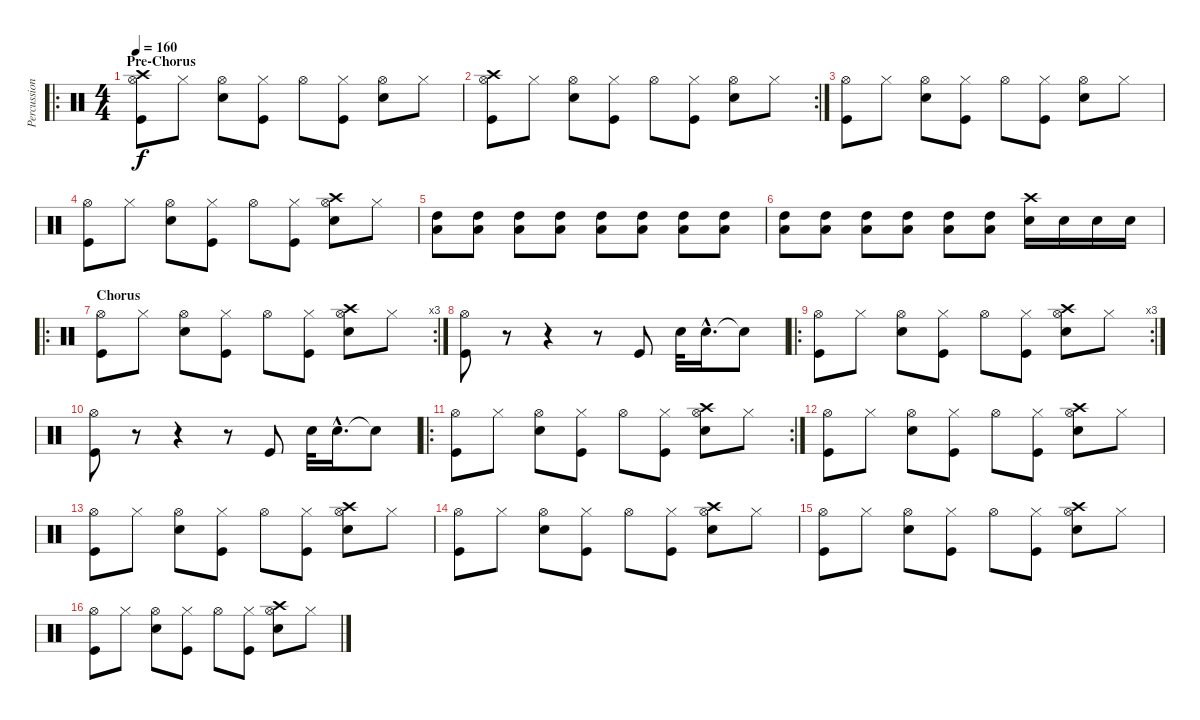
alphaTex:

\track ("Percussions" "Percussion") {instrument percussion}
\staff {score}
\articulation defaults
\ro
\ts (4 4)
\section ("" "Pre-Chorus")
\tempo 160
\clef neutral
\ks c
("Hi-Hat (open)" "Kick (hit)" "Crash high (hit)").8{dy f} "Hi-Hat (closed)".8 ("Hi-Hat (open)" "Snare (hit) 2").8 ("Hi-Hat (closed)" "Kick (hit)").8 "Hi-Hat (open)".8 ("Hi-Hat (closed)" "Kick (hit)").8 ("Hi-Hat (open)" "Snare (hit) 2").8 "Hi-Hat (closed)".8 |
\rc 2
("Hi-Hat (open)" "Kick (hit)" "Crash high (hit)").8 "Hi-Hat (closed)".8 ("Hi-Hat (open)" "Snare (hit) 2").8 ("Hi-Hat (closed)" "Kick (hit)").8 "Hi-Hat (open)".8 ("Hi-Hat (closed)" "Kick (hit)").8 ("Hi-Hat (open)" "Snare (hit) 2").8 "Hi-Hat (closed)".8 |
("Hi-Hat (open)" "Kick (hit)").8 "Hi-Hat (closed)".8 ("Hi-Hat (open)" "Snare (hit) 2").8 ("Hi-Hat (closed)" "Kick (hit)").8 "Hi-Hat (open)".8 ("Hi-Hat (closed)" "Kick (hit)").8 ("Hi-Hat (open)" "Snare (hit) 2").8 "Hi-Hat (closed)".8 |
("Hi-Hat (open)" "Kick (hit)").8 "Hi-Hat (closed)".8 ("Hi-Hat (open)" "Snare (hit) 2").8 ("Hi-Hat (closed)" "Kick (hit)").8 "Hi-Hat (open)".8 ("Hi-Hat (closed)" "Kick (hit)").8 ("Hi-Hat (open)" "Snare (hit) 2" "Crash high (hit)").8 "Hi-Hat (closed)".8 |
("Low Floor Tom (hit)" "High Tom (hit)").8 ("Low Floor Tom (hit)" "High Tom (hit)").8 ("Low Floor Tom (hit)" "High Tom (hit)").8 ("Low Floor Tom (hit)" "High Tom (hit)").8 ("Low Floor Tom (hit)" "High Tom (hit)").8 ("Low Floor Tom (hit)" "High Tom (hit)").8 ("Low Floor Tom (hit)" "High Tom (hit)").8 ("Low Floor Tom (hit)" "High Tom (hit)").8 |
("Low Floor Tom (hit)" "High Tom (hit)").8 ("Low Floor Tom (hit)" "High Tom (hit)").8 ("Low Floor Tom (hit)" "High Tom (hit)").8 ("Low Floor Tom (hit)" "High Tom (hit)").8 ("Low Floor Tom (hit)" "High Tom (hit)").8 ("Low Floor Tom (hit)" "High Tom (hit)").8 ("Snare (hit) 2" "Crash high (hit)").16 "Snare (hit) 2".16 "Snare (hit) 2".16 "Snare (hit) 2".16 |
\ro
\rc 3
\section ("" "Chorus")
("Hi-Hat (open)" "Kick (hit)").8 "Hi-Hat (closed)".8 ("Hi-Hat (open)" "Snare (hit) 2").8 ("Hi-Hat (closed)" "Kick (hit)").8 "Hi-Hat (open)".8 ("Hi-Hat (closed)" "Kick (hit)").8 ("Hi-Hat (open)" "Snare (hit) 2" "Crash high (hit)").8 "Hi-Hat (closed)".8 |
("Hi-Hat (open)" "Kick (hit)").8 r.8 r.4 r.8 "Kick (hit)".8 "Snare (hit) 2".32 "Snare (hit) 2"{hac}.16{d} "Snare (hit)"{t}.8 |
\ro
\rc 3
("Hi-Hat (open)" "Kick (hit)").8 "Hi-Hat (closed)".8 ("Hi-Hat (open)" "Snare (hit) 2").8 ("Hi-Hat (closed)" "Kick (hit)").8 "Hi-Hat (open)".8 ("Hi-Hat (closed)" "Kick (hit)").8 ("Hi-Hat (open)" "Snare (hit) 2" "Crash high (hit)").8 "Hi-Hat (closed)".8 |
("Hi-Hat (open)" "Kick (hit)").8 r.8 r.4 r.8 "Kick (hit)".8 "Snare (hit) 2".32 "Snare (hit) 2"{hac}.16{d} "Snare (hit)"{t}.8 |
\ro
\rc 2
("Hi-Hat (open)" "Kick (hit)").8 "Hi-Hat (closed)".8 ("Hi-Hat (open)" "Snare (hit) 2").8 ("Hi-Hat (closed)" "Kick (hit)").8 "Hi-Hat (open)".8 ("Hi-Hat (closed)" "Kick (hit)").8 ("Hi-Hat (open)" "Snare (hit) 2" "Crash high (hit)").8 "Hi-Hat (closed)".8 |
("Hi-Hat (open)" "Kick (hit)").8 "Hi-Hat (closed)".8 ("Hi-Hat (open)" "Snare (hit) 2").8 ("Hi-Hat (closed)" "Kick (hit)").8 "Hi-Hat (open)".8 ("Hi-Hat (closed)" "Kick (hit)").8 ("Hi-Hat (open)" "Snare (hit) 2" "Crash high (hit)").8 "Hi-Hat (closed)".8 |
("Hi-Hat (open)" "Kick (hit)").8 "Hi-Hat (closed)".8 ("Hi-Hat (open)" "Snare (hit) 2").8 ("Hi-Hat (closed)" "Kick (hit)").8 "Hi-Hat (open)".8 ("Hi-Hat (closed)" "Kick (hit)").8 ("Hi-Hat (open)" "Snare (hit) 2" "Crash high (hit)").8 "Hi-Hat (closed)".8 |
("Hi-Hat (open)" "Kick (hit)").8 "Hi-Hat (closed)".8 ("Hi-Hat (open)" "Snare (hit) 2").8 ("Hi-Hat (closed)" "Kick (hit)").8 "Hi-Hat (open)".8 ("Hi-Hat (closed)" "Kick (hit)").8 ("Hi-Hat (open)" "Snare (hit) 2" "Crash high (hit)").8 "Hi-Hat (closed)".8 |
("Hi-Hat (open)" "Kick (hit)").8 "Hi-Hat (closed)".8 ("Hi-Hat (open)" "Snare (hit) 2").8 ("Hi-Hat (closed)" "Kick (hit)").8 "Hi-Hat (open)".8 ("Hi-Hat (closed)" "Kick (hit)").8 ("Hi-Hat (open)" "Snare (hit) 2" "Crash high (hit)").8 "Hi-Hat (closed)".8 |
("Hi-Hat (open)" "Kick (hit)").8 "Hi-Hat (closed)".8 ("Hi-Hat (open)" "Snare (hit) 2").8 ("Hi-Hat (closed)" "Kick (hit)").8 "Hi-Hat (open)".8 ("Hi-Hat (closed)" "Kick (hit)").8 ("Hi-Hat (open)" "Snare (hit) 2" "Crash high (hit)").8 "Hi-Hat (closed)".8
